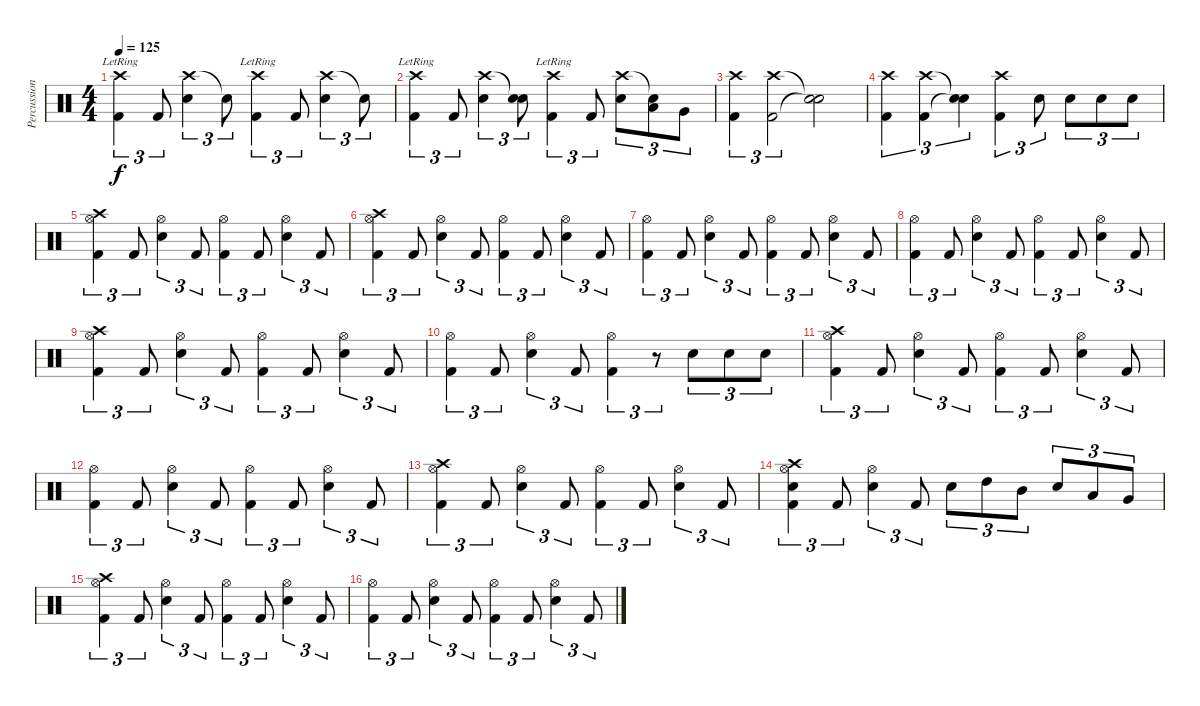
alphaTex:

\track ("Percussion" "Percussion") {instrument percussion}
\staff {score}
\articulation defaults
\ts (4 4)
\tempo 125
\clef neutral
\ks c
("Crash high (hit)"{lr} "Kick (hit) 2").4{tu (3 2) dy f} "Kick (hit) 2".8{tu (3 2)} ("Crash high (hit)" "Snare (hit) 2").4{tu (3 2)} "Snare (hit)"{t}.8{tu (3 2)} ("Crash high (hit)"{lr} "Kick (hit) 2").4{tu (3 2)} "Kick (hit) 2".8{tu (3 2)} ("Crash high (hit)" "Snare (hit) 2").4{tu (3 2)} "Snare (hit)"{t}.8{tu (3 2)} |
("Crash high (hit)"{lr} "Kick (hit) 2").4{tu (3 2)} "Kick (hit) 2".8{tu (3 2)} ("Crash high (hit)" "Snare (hit) 2").4{tu (3 2)} ("Snare (hit)"{t} "Snare (hit) 2").8{tu (3 2)} ("Crash high (hit)"{lr} "Kick (hit) 2").4{tu (3 2)} "Kick (hit) 2".8{tu (3 2)} ("Crash high (hit)" "Snare (hit) 2").8{tu (3 2)} ("Snare (hit)"{t} "Low Tom (hit)").8{tu (3 2) volume 16} "Very Low Tom (hit)".8{tu (3 2)} |
("Crash high (hit)" "Kick (hit) 2").4{tu (3 2)} ("Crash high (hit)" "Kick (hit) 2").2{tu (3 2)} ("Snare (hit)"{t} "Snare (hit)"{t}).2 |
("Crash high (hit)" "Kick (hit) 2").4{tu (3 2)} ("Crash high (hit)" "Kick (hit) 2").4{tu (3 2)} ("Snare (hit)"{t} "Snare (hit)"{t}).4{tu (3 2)} ("Crash high (hit)" "Kick (hit) 2").4{tu (3 2)} "Snare (hit) 2".8{tu (3 2)} "Snare (hit) 2".8{tu (3 2)} "Snare (hit) 2".8{tu (3 2)} "Snare (hit) 2".8{tu (3 2)} |
("Crash high (hit)" "Hi-Hat (open)" "Kick (hit) 2").4{tu (3 2)} "Kick (hit) 2".8{tu (3 2)} ("Hi-Hat (open)" "Snare (hit) 2").4{tu (3 2)} "Kick (hit) 2".8{tu (3 2)} ("Hi-Hat (open)" "Kick (hit) 2").4{tu (3 2)} "Kick (hit) 2".8{tu (3 2)} ("Hi-Hat (open)" "Snare (hit) 2").4{tu (3 2)} "Kick (hit) 2".8{tu (3 2)} |
("Crash high (hit)" "Hi-Hat (open)" "Kick (hit) 2").4{tu (3 2)} "Kick (hit) 2".8{tu (3 2)} ("Hi-Hat (open)" "Snare (hit) 2").4{tu (3 2)} "Kick (hit) 2".8{tu (3 2)} ("Hi-Hat (open)" "Kick (hit) 2").4{tu (3 2)} "Kick (hit) 2".8{tu (3 2)} ("Hi-Hat (open)" "Snare (hit) 2").4{tu (3 2)} "Kick (hit) 2".8{tu (3 2)} |
("Hi-Hat (open)" "Kick (hit) 2").4{tu (3 2)} "Kick (hit) 2".8{tu (3 2)} ("Hi-Hat (open)" "Snare (hit) 2").4{tu (3 2)} "Kick (hit) 2".8{tu (3 2)} ("Hi-Hat (open)" "Kick (hit) 2").4{tu (3 2)} "Kick (hit) 2".8{tu (3 2)} ("Hi-Hat (open)" "Snare (hit) 2").4{tu (3 2)} "Kick (hit) 2".8{tu (3 2)} |
("Hi-Hat (open)" "Kick (hit) 2").4{tu (3 2)} "Kick (hit) 2".8{tu (3 2)} ("Hi-Hat (open)" "Snare (hit) 2").4{tu (3 2)} "Kick (hit) 2".8{tu (3 2)} ("Hi-Hat (open)" "Kick (hit) 2").4{tu (3 2)} "Kick (hit) 2".8{tu (3 2)} ("Hi-Hat (open)" "Snare (hit) 2").4{tu (3 2)} "Kick (hit) 2".8{tu (3 2)} |
("Crash high (hit)" "Hi-Hat (open)" "Kick (hit) 2").4{tu (3 2)} "Kick (hit) 2".8{tu (3 2)} ("Hi-Hat (open)" "Snare (hit) 2").4{tu (3 2)} "Kick (hit) 2".8{tu (3 2)} ("Hi-Hat (open)" "Kick (hit) 2").4{tu (3 2)} "Kick (hit) 2".8{tu (3 2)} ("Hi-Hat (open)" "Snare (hit) 2").4{tu (3 2)} "Kick (hit) 2".8{tu (3 2)} |
("Hi-Hat (open)" "Kick (hit) 2").4{tu (3 2)} "Kick (hit) 2".8{tu (3 2)} ("Hi-Hat (open)" "Snare (hit) 2").4{tu (3 2)} "Kick (hit) 2".8{tu (3 2)} ("Hi-Hat (open)" "Kick (hit) 2").4{tu (3 2)} r.8{tu (3 2)} "Snare (hit) 2".8{tu (3 2)} "Snare (hit) 2".8{tu (3 2)} "Snare (hit) 2".8{tu (3 2)} |
("Crash high (hit)" "Hi-Hat (open)" "Kick (hit) 2").4{tu (3 2)} "Kick (hit) 2".8{tu (3 2)} ("Hi-Hat (open)" "Snare (hit) 2").4{tu (3 2)} "Kick (hit) 2".8{tu (3 2)} ("Hi-Hat (open)" "Kick (hit) 2").4{tu (3 2)} "Kick (hit) 2".8{tu (3 2)} ("Hi-Hat (open)" "Snare (hit) 2").4{tu (3 2)} "Kick (hit) 2".8{tu (3 2)} |
("Hi-Hat (open)" "Kick (hit) 2").4{tu (3 2)} "Kick (hit) 2".8{tu (3 2)} ("Hi-Hat (open)" "Snare (hit) 2").4{tu (3 2)} "Kick (hit) 2".8{tu (3 2)} ("Hi-Hat (open)" "Kick (hit) 2").4{tu (3 2)} "Kick (hit) 2".8{tu (3 2)} ("Hi-Hat (open)" "Snare (hit) 2").4{tu (3 2)} "Kick (hit) 2".8{tu (3 2)} |
("Crash high (hit)" "Hi-Hat (open)" "Kick (hit) 2").4{tu (3 2)} "Kick (hit) 2".8{tu (3 2)} ("Hi-Hat (open)" "Snare (hit) 2").4{tu (3 2)} "Kick (hit) 2".8{tu (3 2)} ("Hi-Hat (open)" "Kick (hit) 2").4{tu (3 2)} "Kick (hit) 2".8{tu (3 2)} ("Hi-Hat (open)" "Snare (hit) 2").4{tu (3 2)} "Kick (hit) 2".8{tu (3 2)} |
("Crash high (hit)" "Hi-Hat (open)" "Snare (hit) 2" "Kick (hit) 2").4{tu (3 2)} "Kick (hit) 2".8{tu (3 2)} ("Hi-Hat (open)" "Snare (hit) 2").4{tu (3 2)} "Kick (hit) 2".8{tu (3 2)} "Snare (hit) 2".8{tu (3 2)} "High Tom (hit)".8{tu (3 2)} "Mid Tom (hit)".8{tu (3 2)} "Snare (hit) 2".8{tu (3 2)} "Low Tom (hit)".8{tu (3 2)} "Very Low Tom (hit)".8{tu (3 2)} |
("Crash high (hit)" "Hi-Hat (open)" "Kick (hit) 2").4{tu (3 2)} "Kick (hit) 2".8{tu (3 2)} ("Hi-Hat (open)" "Snare (hit) 2").4{tu (3 2)} "Kick (hit) 2".8{tu (3 2)} ("Hi-Hat (open)" "Kick (hit) 2").4{tu (3 2)} "Kick (hit) 2".8{tu (3 2)} ("Hi-Hat (open)" "Snare (hit) 2").4{tu (3 2)} "Kick (hit) 2".8{tu (3 2)} |
("Hi-Hat (open)" "Kick (hit) 2").4{tu (3 2)} "Kick (hit) 2".8{tu (3 2)} ("Hi-Hat (open)" "Snare (hit) 2").4{tu (3 2)} "Kick (hit) 2".8{tu (3 2)} ("Hi-Hat (open)" "Kick (hit) 2").4{tu (3 2)} "Kick (hit) 2".8{tu (3 2)} ("Hi-Hat (open)" "Snare (hit) 2").4{tu (3 2)} "Kick (hit) 2".8{tu (3 2)}
